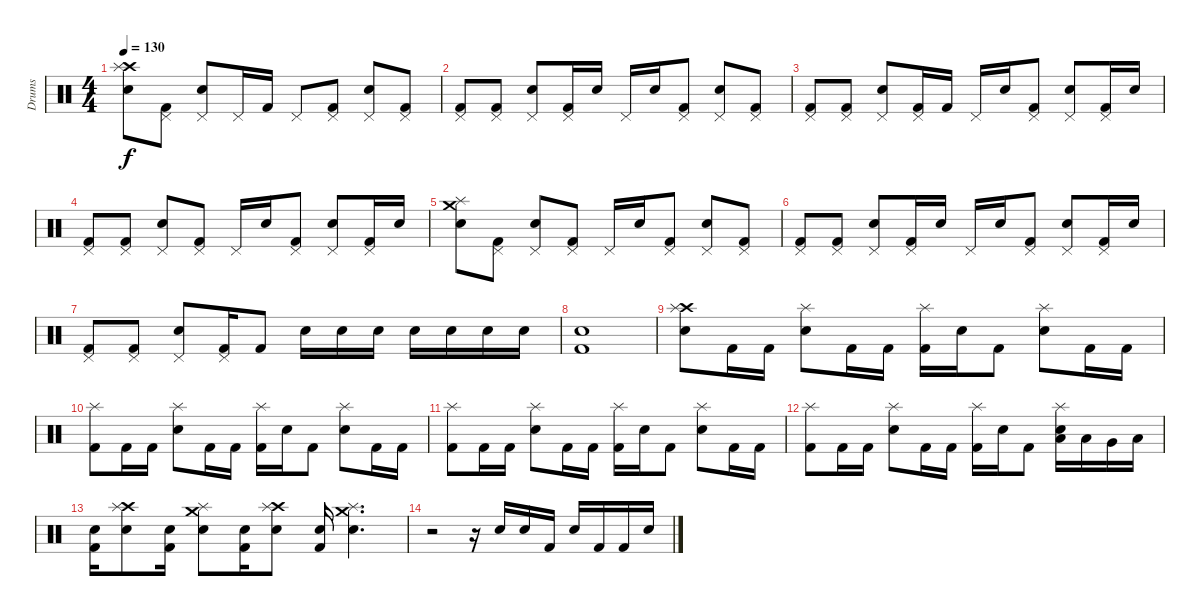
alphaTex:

\track ("Drums" "Drums") {instrument percussion}
\staff {score}
\articulation defaults
\ts (4 4)
\tempo 130
\clef neutral
\ks c
("Crash high (hit)" "Splash (hit)" "Snare (hit) 2").8{dy f} ("Pedal Hi-Hat (hit)" "Kick (hit) 2").8 ("Pedal Hi-Hat (hit)" "Snare (hit) 2").8 "Pedal Hi-Hat (hit)".16 "Kick (hit) 2".16 "Pedal Hi-Hat (hit)".8 ("Pedal Hi-Hat (hit)" "Kick (hit) 2").8 ("Pedal Hi-Hat (hit)" "Snare (hit) 2").8 ("Pedal Hi-Hat (hit)" "Kick (hit) 2").8 |
("Pedal Hi-Hat (hit)" "Kick (hit) 2").8 ("Pedal Hi-Hat (hit)" "Kick (hit) 2").8 ("Pedal Hi-Hat (hit)" "Snare (hit) 2").8 ("Pedal Hi-Hat (hit)" "Kick (hit) 2").16 "Snare (hit) 2".16 "Pedal Hi-Hat (hit)".16 "Snare (hit) 2".16 ("Pedal Hi-Hat (hit)" "Kick (hit) 2").8 ("Pedal Hi-Hat (hit)" "Snare (hit) 2").8 ("Pedal Hi-Hat (hit)" "Kick (hit) 2").8 |
("Pedal Hi-Hat (hit)" "Kick (hit) 2").8 ("Pedal Hi-Hat (hit)" "Kick (hit) 2").8 ("Pedal Hi-Hat (hit)" "Snare (hit) 2").8 ("Pedal Hi-Hat (hit)" "Kick (hit) 2").16 "Kick (hit) 2".16 "Pedal Hi-Hat (hit)".16 "Snare (hit) 2".16 ("Pedal Hi-Hat (hit)" "Kick (hit) 2").8 ("Pedal Hi-Hat (hit)" "Snare (hit) 2").8 ("Pedal Hi-Hat (hit)" "Kick (hit) 2").16 "Snare (hit) 2".16 |
("Pedal Hi-Hat (hit)" "Kick (hit) 2").8 ("Pedal Hi-Hat (hit)" "Kick (hit) 2").8 ("Pedal Hi-Hat (hit)" "Snare (hit) 2").8 ("Pedal Hi-Hat (hit)" "Kick (hit) 2").8 "Pedal Hi-Hat (hit)".16 "Snare (hit) 2".16 ("Pedal Hi-Hat (hit)" "Kick (hit) 2").8 ("Pedal Hi-Hat (hit)" "Snare (hit) 2").8 ("Pedal Hi-Hat (hit)" "Kick (hit) 2").16 "Snare (hit) 2".16 |
("Crash medium (hit)" "Splash (hit)" "Snare (hit) 2").8 ("Pedal Hi-Hat (hit)" "Kick (hit) 2").8 ("Pedal Hi-Hat (hit)" "Snare (hit) 2").8 ("Pedal Hi-Hat (hit)" "Kick (hit) 2").8 "Pedal Hi-Hat (hit)".16 "Snare (hit) 2".16 ("Pedal Hi-Hat (hit)" "Kick (hit) 2").8 ("Pedal Hi-Hat (hit)" "Snare (hit) 2").8 ("Pedal Hi-Hat (hit)" "Kick (hit) 2").8 |
("Pedal Hi-Hat (hit)" "Kick (hit) 2").8 ("Pedal Hi-Hat (hit)" "Kick (hit) 2").8 ("Pedal Hi-Hat (hit)" "Snare (hit) 2").8 ("Pedal Hi-Hat (hit)" "Kick (hit) 2").16 "Snare (hit) 2".16 "Pedal Hi-Hat (hit)".16 "Snare (hit) 2".16 ("Pedal Hi-Hat (hit)" "Kick (hit) 2").8 ("Pedal Hi-Hat (hit)" "Snare (hit) 2").8 ("Pedal Hi-Hat (hit)" "Kick (hit) 2").16 "Snare (hit) 2".16 |
("Pedal Hi-Hat (hit)" "Kick (hit) 2").8 ("Pedal Hi-Hat (hit)" "Kick (hit) 2").8 ("Pedal Hi-Hat (hit)" "Snare (hit) 2").8 ("Pedal Hi-Hat (hit)" "Kick (hit) 2").16 "Kick (hit) 2".8 "Snare (hit) 2".16 "Snare (hit) 2".16 "Snare (hit) 2".16 "Snare (hit) 2".16 "Snare (hit) 2".16 "Snare (hit) 2".16 "Snare (hit) 2".16 |
("Snare (hit) 2" "Kick (hit) 2").1 |
("Crash high (hit)" "Splash (hit)" "Snare (hit) 2").8 "Kick (hit) 2".16 "Kick (hit) 2".16 ("Splash (hit)" "Snare (hit) 2").8 "Kick (hit) 2".16 "Kick (hit) 2".16 ("Splash (hit)" "Kick (hit) 2").16 "Snare (hit) 2".16 "Kick (hit) 2".8 ("Splash (hit)" "Snare (hit) 2").8 "Kick (hit) 2".16 "Kick (hit) 2".16 |
("Splash (hit)" "Kick (hit) 2").8 "Kick (hit) 2".16 "Kick (hit) 2".16 ("Splash (hit)" "Snare (hit) 2").8 "Kick (hit) 2".16 "Kick (hit) 2".16 ("Splash (hit)" "Kick (hit) 2").16 "Snare (hit) 2".16 "Kick (hit) 2".8 ("Splash (hit)" "Snare (hit) 2").8 "Kick (hit) 2".16 "Kick (hit) 2".16 |
("Splash (hit)" "Kick (hit) 2").8 "Kick (hit) 2".16 "Kick (hit) 2".16 ("Splash (hit)" "Snare (hit) 2").8 "Kick (hit) 2".16 "Kick (hit) 2".16 ("Splash (hit)" "Kick (hit) 2").16 "Snare (hit) 2".16 "Kick (hit) 2".8 ("Splash (hit)" "Snare (hit) 2").8 "Kick (hit) 2".16 "Kick (hit) 2".16 |
("Splash (hit)" "Kick (hit) 2").8 "Kick (hit) 2".16 "Kick (hit) 2".16 ("Splash (hit)" "Snare (hit) 2").8 "Kick (hit) 2".16 "Kick (hit) 2".16 ("Splash (hit)" "Kick (hit) 2").16 "Snare (hit) 2".16 "Kick (hit) 2".8 ("Splash (hit)" "Snare (hit) 2" "Low Tom (hit)").16 "Low Tom (hit)".16 "Very Low Tom (hit)".16 "Low Floor Tom (hit)".16 |
("Snare (hit) 2" "Kick (hit) 2").16 ("Crash high (hit)" "Splash (hit)" "Snare (hit) 2").8 ("Snare (hit) 2" "Kick (hit) 2").16 ("Crash medium (hit)" "Splash (hit)" "Snare (hit) 2").8 ("Snare (hit) 2" "Kick (hit) 2").16 ("Crash high (hit)" "Splash (hit)" "Snare (hit) 2").8 ("Snare (hit) 2" "Kick (hit) 2").16 ("Crash medium (hit)" "Splash (hit)" "Snare (hit) 2").4{d} |
r.2 r.16 "Snare (hit) 2".16 "Snare (hit) 2".16 "Kick (hit) 2".16 "Snare (hit) 2".16 "Kick (hit) 2".16 "Kick (hit) 2".16 "Snare (hit) 2".16
